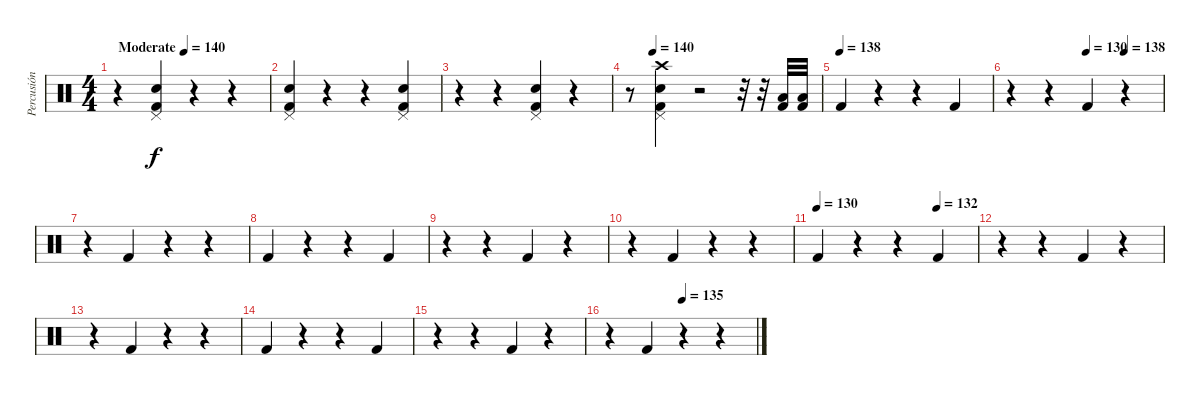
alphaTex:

\track ("Percusión" "Percusión") {instrument percussion}
\staff {score}
\articulation defaults
\ts (4 4)
\tempo (140 "Moderate")
\clef neutral
\ks c
r.4{dy f} ("Pedal Hi-Hat (hit)" "Kick (hit) 2" "Snare (hit)").4 r.4 r.4 |
("Pedal Hi-Hat (hit)" "Kick (hit) 2" "Snare (hit)").4 r.4 r.4 ("Pedal Hi-Hat (hit)" "Kick (hit) 2" "Snare (hit)").4 |
r.4 r.4 ("Pedal Hi-Hat (hit)" "Kick (hit) 2" "Snare (hit)").4 r.4 |
\tempo (140 0.125)
r.8 ("Pedal Hi-Hat (hit)" "Kick (hit) 2" "Snare (hit)" "Crash high (hit)").4 r.2 r.32 r.32 ("Kick (hit) 2" "Low Tom (hit)").32 ("Kick (hit) 2" "Low Tom (hit)").32 |
\tempo (138)
"Kick (hit) 2".4 r.4 r.4 "Kick (hit) 2".4 |
\tempo (130 0.5)
\tempo (138 0.75)
r.4 r.4 "Kick (hit) 2".4 r.4 |
r.4 "Kick (hit) 2".4 r.4 r.4 |
"Kick (hit) 2".4 r.4 r.4 "Kick (hit) 2".4 |
r.4 r.4 "Kick (hit) 2".4 r.4 |
r.4 "Kick (hit) 2".4 r.4 r.4 |
\tempo 130
\tempo (135 0.75)
\tempo (132 0.75)
"Kick (hit) 2".4 r.4 r.4 "Kick (hit) 2".4 |
r.4 r.4 "Kick (hit) 2".4 r.4 |
r.4 "Kick (hit) 2".4 r.4 r.4 |
"Kick (hit) 2".4 r.4 r.4 "Kick (hit) 2".4 |
r.4 r.4 "Kick (hit) 2".4 r.4 |
\tempo (135 0.5)
r.4 "Kick (hit) 2".4 r.4 r.4
